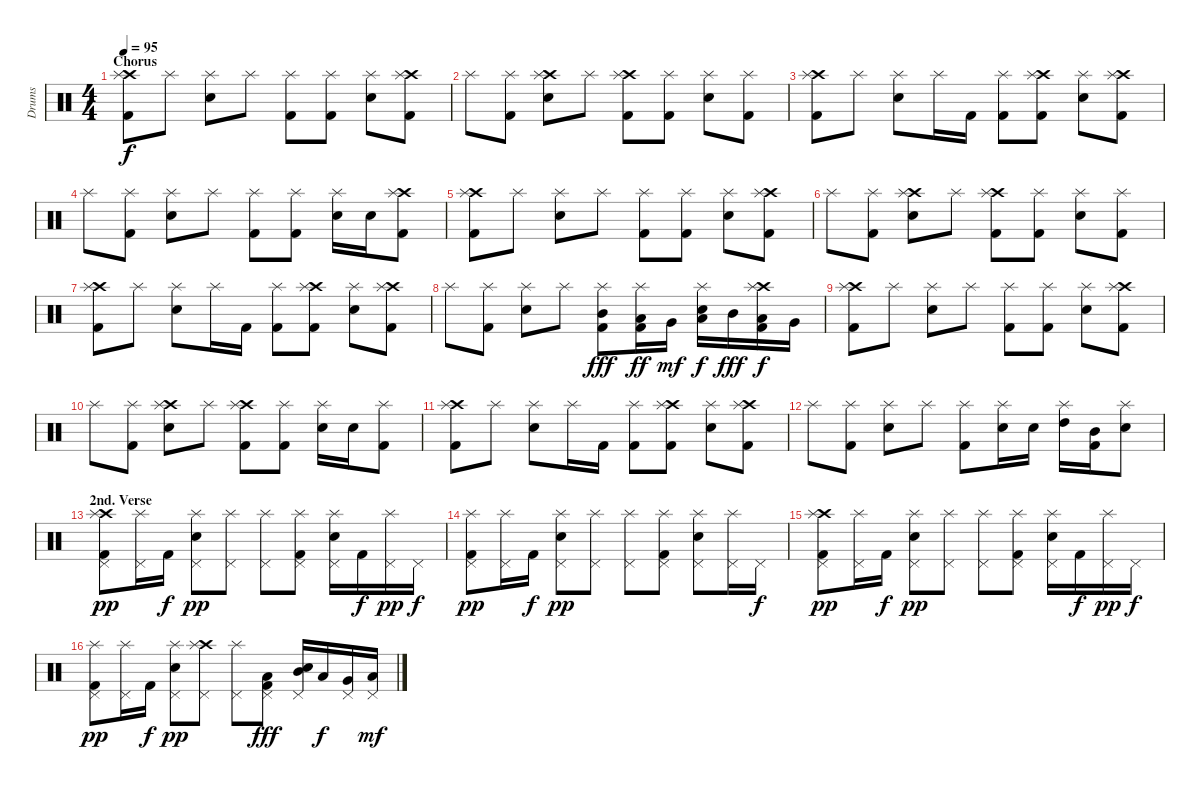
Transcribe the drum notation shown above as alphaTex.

\track ("Drums" "Drums") {instrument percussion}
\staff {score}
\articulation defaults
\ts (4 4)
\section ("" "Chorus")
\tempo 95
\clef neutral
\ks c
("Crash high (hit)" "Splash (hit)" "Kick (hit) 2").8{dy f} "Splash (hit)".8 ("Splash (hit)" "Electric Snare (hit)").8 "Splash (hit)".8 ("Splash (hit)" "Kick (hit) 2").8 ("Splash (hit)" "Kick (hit) 2").8 ("Splash (hit)" "Electric Snare (hit)").8 ("Crash high (hit)" "Splash (hit)" "Kick (hit) 2").8 |
"Splash (hit)".8 ("Splash (hit)" "Kick (hit) 2").8 ("Crash high (hit)" "Splash (hit)" "Electric Snare (hit)").8 "Splash (hit)".8 ("Crash high (hit)" "Splash (hit)" "Kick (hit) 2").8 ("Splash (hit)" "Kick (hit) 2").8 ("Splash (hit)" "Electric Snare (hit)").8 ("Splash (hit)" "Kick (hit) 2").8 |
("Crash high (hit)" "Splash (hit)" "Kick (hit) 2").8 "Splash (hit)".8 ("Splash (hit)" "Electric Snare (hit)").8 "Splash (hit)".16 "Kick (hit) 2".16 ("Splash (hit)" "Kick (hit) 2").8 ("Crash high (hit)" "Splash (hit)" "Kick (hit) 2").8 ("Splash (hit)" "Electric Snare (hit)").8 ("Crash high (hit)" "Splash (hit)" "Kick (hit) 2").8 |
"Splash (hit)".8 ("Splash (hit)" "Kick (hit) 2").8 ("Splash (hit)" "Electric Snare (hit)").8 "Splash (hit)".8 ("Splash (hit)" "Kick (hit) 2").8 ("Splash (hit)" "Kick (hit) 2").8 ("Splash (hit)" "Electric Snare (hit)").16 "Electric Snare (hit)".16 ("Crash high (hit)" "Splash (hit)" "Kick (hit) 2").8 |
("Crash high (hit)" "Splash (hit)" "Kick (hit) 2").8 "Splash (hit)".8 ("Splash (hit)" "Electric Snare (hit)").8 "Splash (hit)".8 ("Splash (hit)" "Kick (hit) 2").8 ("Splash (hit)" "Kick (hit) 2").8 ("Splash (hit)" "Electric Snare (hit)").8 ("Crash high (hit)" "Splash (hit)" "Kick (hit) 2").8 |
"Splash (hit)".8 ("Splash (hit)" "Kick (hit) 2").8 ("Crash high (hit)" "Splash (hit)" "Electric Snare (hit)").8 "Splash (hit)".8 ("Crash high (hit)" "Splash (hit)" "Kick (hit) 2").8 ("Splash (hit)" "Kick (hit) 2").8 ("Splash (hit)" "Electric Snare (hit)").8 ("Splash (hit)" "Kick (hit) 2").8 |
("Crash high (hit)" "Splash (hit)" "Kick (hit) 2").8 "Splash (hit)".8 ("Splash (hit)" "Electric Snare (hit)").8 "Splash (hit)".16 "Kick (hit) 2".16 ("Splash (hit)" "Kick (hit) 2").8 ("Crash high (hit)" "Splash (hit)" "Kick (hit) 2").8 ("Splash (hit)" "Electric Snare (hit)").8 ("Crash high (hit)" "Splash (hit)" "Kick (hit) 2").8 |
"Splash (hit)".8 ("Splash (hit)" "Kick (hit) 2").8 ("Splash (hit)" "Electric Snare (hit)").8 "Splash (hit)".8 ("Splash (hit)" "Mid Tom (hit)" "Kick (hit) 2").8{dy fff} ("Splash (hit)" "Low Tom (hit)" "Kick (hit) 2").16{dy ff} "Very Low Tom (hit)".16{dy mf} ("Splash (hit)" "Electric Snare (hit)" "Low Floor Tom (hit)").16{dy f} "Mid Tom (hit)".16{dy fff} ("Crash high (hit)" "Splash (hit)" "Low Tom (hit)" "Kick (hit) 2").16{dy f} "Very Low Tom (hit)".16 |
("Crash high (hit)" "Splash (hit)" "Kick (hit) 2").8 "Splash (hit)".8 ("Splash (hit)" "Electric Snare (hit)").8 "Splash (hit)".8 ("Splash (hit)" "Kick (hit) 2").8 ("Splash (hit)" "Kick (hit) 2").8 ("Splash (hit)" "Electric Snare (hit)").8 ("Crash high (hit)" "Splash (hit)" "Kick (hit) 2").8 |
"Splash (hit)".8 ("Splash (hit)" "Kick (hit) 2").8 ("Crash high (hit)" "Splash (hit)" "Electric Snare (hit)").8 "Splash (hit)".8 ("Crash high (hit)" "Splash (hit)" "Kick (hit) 2").8 ("Splash (hit)" "Kick (hit) 2").8 ("Splash (hit)" "Electric Snare (hit)").16 "Electric Snare (hit)".16 ("Splash (hit)" "Kick (hit) 2").8 |
("Crash high (hit)" "Splash (hit)" "Kick (hit) 2").8 "Splash (hit)".8 ("Splash (hit)" "Electric Snare (hit)").8 "Splash (hit)".16 "Kick (hit) 2".16 ("Splash (hit)" "Kick (hit) 2").8 ("Crash high (hit)" "Splash (hit)" "Kick (hit) 2").8 ("Splash (hit)" "Electric Snare (hit)").8 ("Crash high (hit)" "Splash (hit)" "Kick (hit) 2").8 |
"Splash (hit)".8 ("Splash (hit)" "Kick (hit) 2").8 ("Splash (hit)" "Electric Snare (hit)").8 "Splash (hit)".8 ("Splash (hit)" "Kick (hit) 2").8 ("Splash (hit)" "Electric Snare (hit)").16 "Electric Snare (hit)".16 ("Splash (hit)" "High Tom (hit)").16 ("Mid Tom (hit)" "Kick (hit) 2").16 ("Splash (hit)" "Electric Snare (hit)").8 |
\section ("" "2nd. Verse")
("Crash high (hit)" "Pedal Hi-Hat (hit)" "Splash (hit)" "Kick (hit) 2").8{dy pp} ("Pedal Hi-Hat (hit)" "Splash (hit)").16 "Kick (hit) 2".16{dy f} ("Pedal Hi-Hat (hit)" "Electric Snare (hit)" "Splash (hit)").8{dy pp} ("Pedal Hi-Hat (hit)" "Splash (hit)").8 ("Pedal Hi-Hat (hit)" "Splash (hit)").8 ("Pedal Hi-Hat (hit)" "Splash (hit)" "Kick (hit) 2").8 ("Pedal Hi-Hat (hit)" "Electric Snare (hit)" "Splash (hit)").16 "Kick (hit) 2".16{dy f} ("Pedal Hi-Hat (hit)" "Splash (hit)").16{dy pp} "Pedal Hi-Hat (hit)".16{dy f} |
("Pedal Hi-Hat (hit)" "Splash (hit)" "Kick (hit) 2").8{dy pp} ("Pedal Hi-Hat (hit)" "Splash (hit)").16 "Kick (hit) 2".16{dy f} ("Pedal Hi-Hat (hit)" "Electric Snare (hit)" "Splash (hit)").8{dy pp} ("Pedal Hi-Hat (hit)" "Splash (hit)").8 ("Pedal Hi-Hat (hit)" "Splash (hit)").8 ("Pedal Hi-Hat (hit)" "Splash (hit)" "Kick (hit) 2").8 ("Pedal Hi-Hat (hit)" "Electric Snare (hit)" "Splash (hit)").8 ("Pedal Hi-Hat (hit)" "Splash (hit)").16 "Pedal Hi-Hat (hit)".16{dy f} |
("Crash high (hit)" "Pedal Hi-Hat (hit)" "Splash (hit)" "Kick (hit) 2").8{dy pp} ("Pedal Hi-Hat (hit)" "Splash (hit)").16 "Kick (hit) 2".16{dy f} ("Pedal Hi-Hat (hit)" "Electric Snare (hit)" "Splash (hit)").8{dy pp} ("Pedal Hi-Hat (hit)" "Splash (hit)").8 ("Pedal Hi-Hat (hit)" "Splash (hit)").8 ("Pedal Hi-Hat (hit)" "Splash (hit)" "Kick (hit) 2").8 ("Pedal Hi-Hat (hit)" "Electric Snare (hit)" "Splash (hit)").16 "Kick (hit) 2".16{dy f} ("Pedal Hi-Hat (hit)" "Splash (hit)").16{dy pp} "Pedal Hi-Hat (hit)".16{dy f} |
("Pedal Hi-Hat (hit)" "Splash (hit)" "Kick (hit) 2").8{dy pp} ("Pedal Hi-Hat (hit)" "Splash (hit)").16 "Kick (hit) 2".16{dy f} ("Pedal Hi-Hat (hit)" "Electric Snare (hit)" "Splash (hit)").8{dy pp} ("Crash high (hit)" "Pedal Hi-Hat (hit)" "Splash (hit)").8 ("Pedal Hi-Hat (hit)" "Splash (hit)").8 ("Pedal Hi-Hat (hit)" "Low Floor Tom (hit)" "Kick (hit) 2").8{dy fff} ("Pedal Hi-Hat (hit)" "Electric Snare (hit)" "Mid Tom (hit)").16 "Low Tom (hit)".16{dy f} ("Pedal Hi-Hat (hit)" "Very Low Tom (hit)").16 ("Pedal Hi-Hat (hit)" "Low Floor Tom (hit)").16{dy mf}
